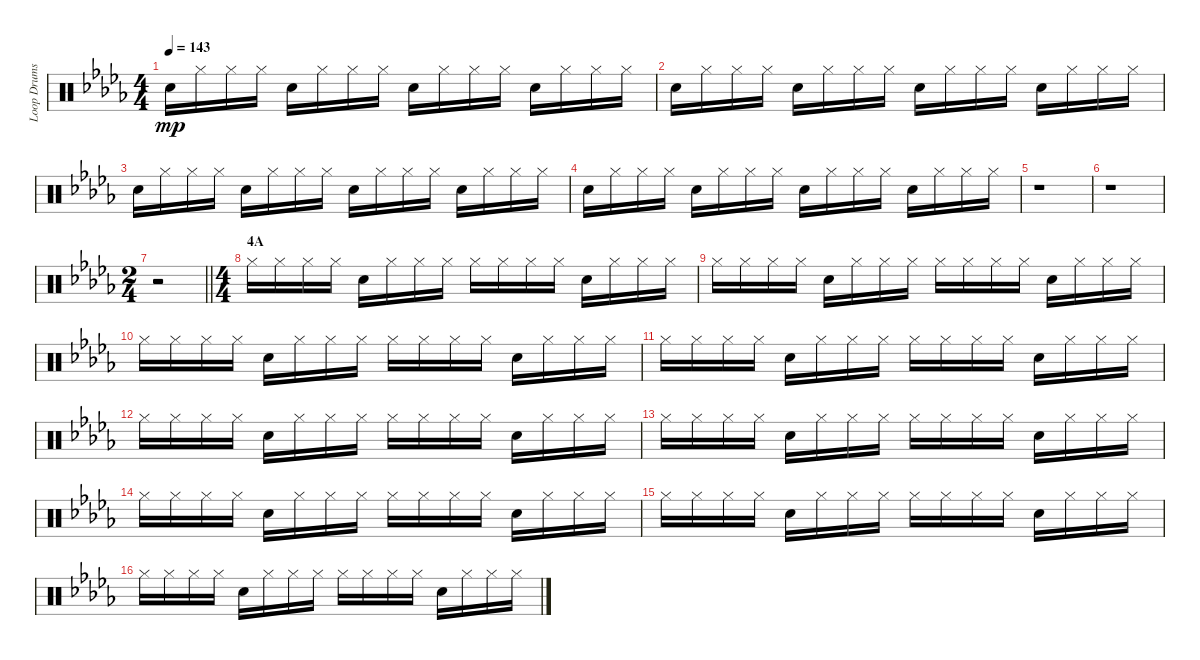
\track ("Loop Drums" "Loop Drums") {instrument percussion}
\staff {score}
\articulation defaults
\ts (4 4)
\tempo 143
\clef neutral
\ks db "Electric Snare (hit)".16{dy mp} "Hi-Hat (closed)".16 "Hi-Hat (closed)".16 "Hi-Hat (closed)".16 "Electric Snare (hit)".16 "Hi-Hat (closed)".16 "Hi-Hat (closed)".16 "Hi-Hat (closed)".16 "Electric Snare (hit)".16 "Hi-Hat (closed)".16 "Hi-Hat (closed)".16 "Hi-Hat (closed)".16 "Electric Snare (hit)".16 "Hi-Hat (closed)".16 "Hi-Hat (closed)".16 "Hi-Hat (closed)".16
|
"Electric Snare (hit)".16 "Hi-Hat (closed)".16 "Hi-Hat (closed)".16 "Hi-Hat (closed)".16 "Electric Snare (hit)".16 "Hi-Hat (closed)".16 "Hi-Hat (closed)".16 "Hi-Hat (closed)".16 "Electric Snare (hit)".16 "Hi-Hat (closed)".16 "Hi-Hat (closed)".16 "Hi-Hat (closed)".16 "Electric Snare (hit)".16 "Hi-Hat (closed)".16 "Hi-Hat (closed)".16 "Hi-Hat (closed)".16 |
"Electric Snare (hit)".16 "Hi-Hat (closed)".16 "Hi-Hat (closed)".16 "Hi-Hat (closed)".16 "Electric Snare (hit)".16 "Hi-Hat (closed)".16 "Hi-Hat (closed)".16 "Hi-Hat (closed)".16 "Electric Snare (hit)".16 "Hi-Hat (closed)".16 "Hi-Hat (closed)".16 "Hi-Hat (closed)".16 "Electric Snare (hit)".16 "Hi-Hat (closed)".16 "Hi-Hat (closed)".16 "Hi-Hat (closed)".16 |
"Electric Snare (hit)".16 "Hi-Hat (closed)".16 "Hi-Hat (closed)".16 "Hi-Hat (closed)".16 "Electric Snare (hit)".16 "Hi-Hat (closed)".16 "Hi-Hat (closed)".16 "Hi-Hat (closed)".16 "Electric Snare (hit)".16 "Hi-Hat (closed)".16 "Hi-Hat (closed)".16 "Hi-Hat (closed)".16 "Electric Snare (hit)".16 "Hi-Hat (closed)".16 "Hi-Hat (closed)".16 "Hi-Hat (closed)".16 |
r.1 |
r.1 |
\ts (2 4)
\barLineRight lightlight
r.2 |
\ts (4 4)
\section ("" "4A")
"Hi-Hat (closed)".16 "Hi-Hat (closed)".16 "Hi-Hat (closed)".16 "Hi-Hat (closed)".16 "Electric Snare (hit)".16 "Hi-Hat (closed)".16 "Hi-Hat (closed)".16 "Hi-Hat (closed)".16 "Hi-Hat (closed)".16 "Hi-Hat (closed)".16 "Hi-Hat (closed)".16 "Hi-Hat (closed)".16 "Electric Snare (hit)".16 "Hi-Hat (closed)".16 "Hi-Hat (closed)".16 "Hi-Hat (closed)".16 |
"Hi-Hat (closed)".16 "Hi-Hat (closed)".16 "Hi-Hat (closed)".16 "Hi-Hat (closed)".16 "Electric Snare (hit)".16 "Hi-Hat (closed)".16 "Hi-Hat (closed)".16 "Hi-Hat (closed)".16 "Hi-Hat (closed)".16 "Hi-Hat (closed)".16 "Hi-Hat (closed)".16 "Hi-Hat (closed)".16 "Electric Snare (hit)".16 "Hi-Hat (closed)".16 "Hi-Hat (closed)".16 "Hi-Hat (closed)".16 |
"Hi-Hat (closed)".16 "Hi-Hat (closed)".16 "Hi-Hat (closed)".16 "Hi-Hat (closed)".16 "Electric Snare (hit)".16 "Hi-Hat (closed)".16 "Hi-Hat (closed)".16 "Hi-Hat (closed)".16 "Hi-Hat (closed)".16 "Hi-Hat (closed)".16 "Hi-Hat (closed)".16 "Hi-Hat (closed)".16 "Electric Snare (hit)".16 "Hi-Hat (closed)".16 "Hi-Hat (closed)".16 "Hi-Hat (closed)".16 |
"Hi-Hat (closed)".16 "Hi-Hat (closed)".16 "Hi-Hat (closed)".16 "Hi-Hat (closed)".16 "Electric Snare (hit)".16 "Hi-Hat (closed)".16 "Hi-Hat (closed)".16 "Hi-Hat (closed)".16 "Hi-Hat (closed)".16 "Hi-Hat (closed)".16 "Hi-Hat (closed)".16 "Hi-Hat (closed)".16 "Electric Snare (hit)".16 "Hi-Hat (closed)".16 "Hi-Hat (closed)".16 "Hi-Hat (closed)".16 |
"Hi-Hat (closed)".16 "Hi-Hat (closed)".16 "Hi-Hat (closed)".16 "Hi-Hat (closed)".16 "Electric Snare (hit)".16 "Hi-Hat (closed)".16 "Hi-Hat (closed)".16 "Hi-Hat (closed)".16 "Hi-Hat (closed)".16 "Hi-Hat (closed)".16 "Hi-Hat (closed)".16 "Hi-Hat (closed)".16 "Electric Snare (hit)".16 "Hi-Hat (closed)".16 "Hi-Hat (closed)".16 "Hi-Hat (closed)".16 |
"Hi-Hat (closed)".16 "Hi-Hat (closed)".16 "Hi-Hat (closed)".16 "Hi-Hat (closed)".16 "Electric Snare (hit)".16 "Hi-Hat (closed)".16 "Hi-Hat (closed)".16 "Hi-Hat (closed)".16 "Hi-Hat (closed)".16 "Hi-Hat (closed)".16 "Hi-Hat (closed)".16 "Hi-Hat (closed)".16 "Electric Snare (hit)".16 "Hi-Hat (closed)".16 "Hi-Hat (closed)".16 "Hi-Hat (closed)".16 |
"Hi-Hat (closed)".16 "Hi-Hat (closed)".16 "Hi-Hat (closed)".16 "Hi-Hat (closed)".16 "Electric Snare (hit)".16 "Hi-Hat (closed)".16 "Hi-Hat (closed)".16 "Hi-Hat (closed)".16 "Hi-Hat (closed)".16 "Hi-Hat (closed)".16 "Hi-Hat (closed)".16 "Hi-Hat (closed)".16 "Electric Snare (hit)".16 "Hi-Hat (closed)".16 "Hi-Hat (closed)".16 "Hi-Hat (closed)".16 |
"Hi-Hat (closed)".16 "Hi-Hat (closed)".16 "Hi-Hat (closed)".16 "Hi-Hat (closed)".16 "Electric Snare (hit)".16 "Hi-Hat (closed)".16 "Hi-Hat (closed)".16 "Hi-Hat (closed)".16 "Hi-Hat (closed)".16 "Hi-Hat (closed)".16 "Hi-Hat (closed)".16 "Hi-Hat (closed)".16 "Electric Snare (hit)".16 "Hi-Hat (closed)".16 "Hi-Hat (closed)".16 "Hi-Hat (closed)".16 |
"Hi-Hat (closed)".16 "Hi-Hat (closed)".16 "Hi-Hat (closed)".16 "Hi-Hat (closed)".16 "Electric Snare (hit)".16 "Hi-Hat (closed)".16 "Hi-Hat (closed)".16 "Hi-Hat (closed)".16 "Hi-Hat (closed)".16 "Hi-Hat (closed)".16 "Hi-Hat (closed)".16 "Hi-Hat (closed)".16 "Electric Snare (hit)".16 "Hi-Hat (closed)".16 "Hi-Hat (closed)".16 "Hi-Hat (closed)".16
